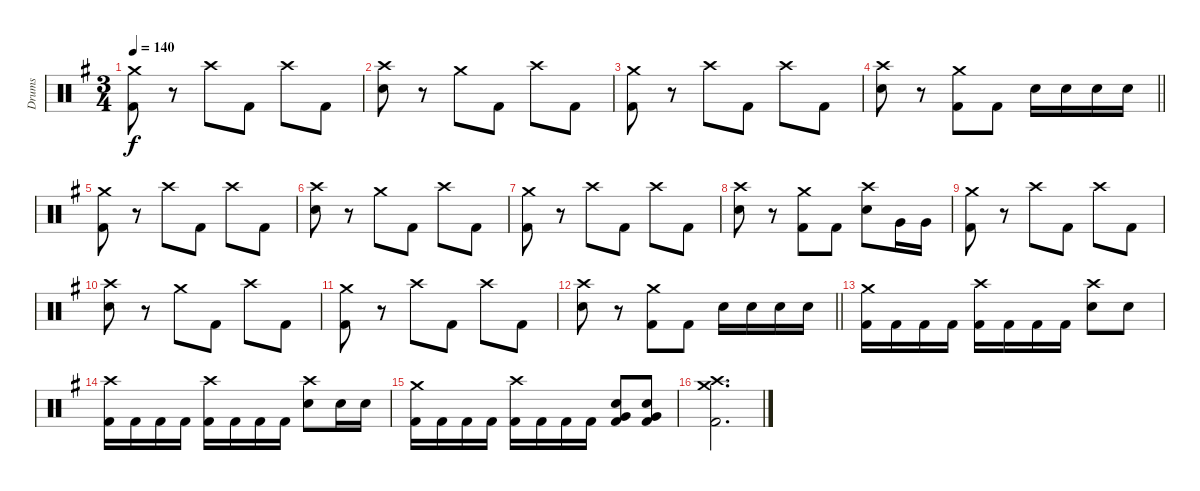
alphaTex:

\track ("Drums" "Drums") {instrument percussion}
\staff {score}
\articulation defaults
\ts (3 4)
\tempo 140
\clef neutral
\ks eminor
("Crash medium (hit)" "Kick (hit) 2").8{dy f} r.8 "Crash high (hit)".8 "Kick (hit) 2".8 "Crash high (hit)".8 "Kick (hit) 2".8 |
("Crash high (hit)" "Snare (hit) 2").8 r.8 "Crash medium (hit)".8 "Kick (hit) 2".8 "Crash high (hit)".8 "Kick (hit) 2".8 |
("Crash medium (hit)" "Kick (hit) 2").8 r.8 "Crash high (hit)".8 "Kick (hit) 2".8 "Crash high (hit)".8 "Kick (hit) 2".8 |
\barLineRight lightlight
("Crash high (hit)" "Snare (hit) 2").8 r.8 ("Crash medium (hit)" "Kick (hit) 2").8 "Kick (hit) 2".8 "Snare (hit) 2".16 "Snare (hit) 2".16 "Snare (hit) 2".16 "Snare (hit) 2".16 |
("Crash medium (hit)" "Kick (hit) 2").8 r.8 "Crash high (hit)".8 "Kick (hit) 2".8 "Crash high (hit)".8 "Kick (hit) 2".8 |
("Crash high (hit)" "Snare (hit) 2").8 r.8 "Crash medium (hit)".8 "Kick (hit) 2".8 "Crash high (hit)".8 "Kick (hit) 2".8 |
("Crash medium (hit)" "Kick (hit) 2").8 r.8 "Crash high (hit)".8 "Kick (hit) 2".8 "Crash high (hit)".8 "Kick (hit) 2".8 |
("Crash high (hit)" "Snare (hit) 2").8 r.8 ("Crash medium (hit)" "Kick (hit) 2").8 "Kick (hit) 2".8 ("Crash high (hit)" "Snare (hit) 2").8 "Very Low Tom (hit)".16 "Very Low Tom (hit)".16 |
("Crash medium (hit)" "Kick (hit) 2").8 r.8 "Crash high (hit)".8 "Kick (hit) 2".8 "Crash high (hit)".8 "Kick (hit) 2".8 |
("Crash high (hit)" "Snare (hit) 2").8 r.8 "Crash medium (hit)".8 "Kick (hit) 2".8 "Crash high (hit)".8 "Kick (hit) 2".8 |
("Crash medium (hit)" "Kick (hit) 2").8 r.8 "Crash high (hit)".8 "Kick (hit) 2".8 "Crash high (hit)".8 "Kick (hit) 2".8 |
\barLineRight lightlight
("Crash high (hit)" "Snare (hit) 2").8 r.8 ("Crash medium (hit)" "Kick (hit) 2").8 "Kick (hit) 2".8 "Snare (hit) 2".16 "Snare (hit) 2".16 "Snare (hit) 2".16 "Snare (hit) 2".16 |
("Crash medium (hit)" "Kick (hit) 2").16 "Kick (hit) 2".16 "Kick (hit) 2".16 "Kick (hit) 2".16 ("Crash high (hit)" "Kick (hit) 2").16 "Kick (hit) 2".16 "Kick (hit) 2".16 "Kick (hit) 2".16 ("Crash high (hit)" "Snare (hit) 2").8 "Snare (hit) 2".8 |
("Crash high (hit)" "Kick (hit) 2").16 "Kick (hit) 2".16 "Kick (hit) 2".16 "Kick (hit) 2".16 ("Crash high (hit)" "Kick (hit) 2").16 "Kick (hit) 2".16 "Kick (hit) 2".16 "Kick (hit) 2".16 ("Crash high (hit)" "Snare (hit) 2").8 "Snare (hit) 2".16 "Snare (hit) 2".16 |
("Crash medium (hit)" "Kick (hit) 2").16 "Kick (hit) 2".16 "Kick (hit) 2".16 "Kick (hit) 2".16 ("Crash high (hit)" "Kick (hit) 2").16 "Kick (hit) 2".16 "Kick (hit) 2".16 "Kick (hit) 2".16 ("Very Low Tom (hit)" "Snare (hit) 2" "Kick (hit) 2").8 ("Very Low Tom (hit)" "Snare (hit) 2" "Kick (hit) 2").8 |
("Crash medium (hit)" "Crash high (hit)" "Kick (hit) 2").2{d}
